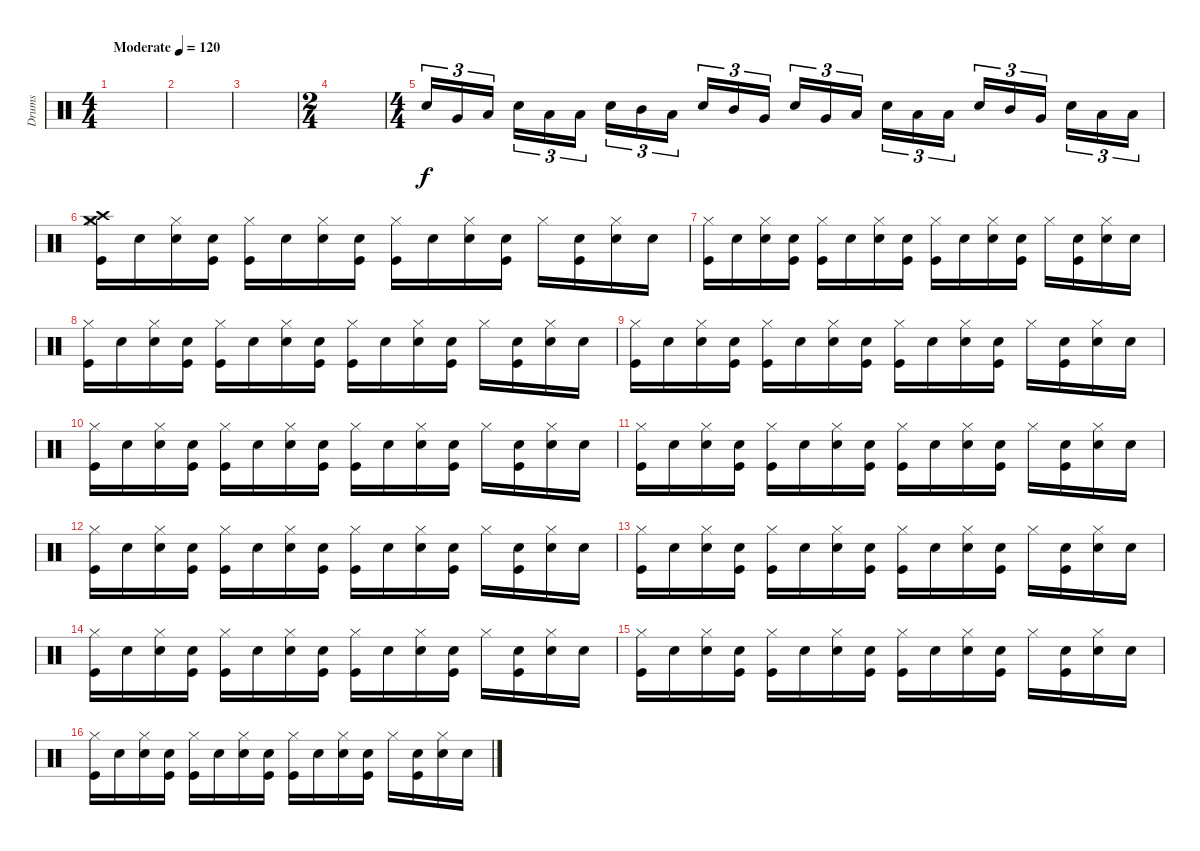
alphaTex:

\track ("Drums" "Drums") {instrument percussion}
\staff {score}
\articulation defaults
\ts (4 4)
\tempo (120 "Moderate")
\clef neutral
\ks c
|
|
|
\ts (2 4)
|
\ts (4 4)
"Electric Snare (hit)".16{tu (3 2)} "Very Low Tom (hit)".16{tu (3 2)} "Low Floor Tom (hit)".16{tu (3 2) beam splitsecondary} "Electric Snare (hit)".16{tu (3 2)} "Low Tom (hit)".16{tu (3 2)} "Low Floor Tom (hit)".16{tu (3 2)} "Electric Snare (hit)".16{tu (3 2)} "Mid Tom (hit)".16{tu (3 2)} "Low Floor Tom (hit)".16{tu (3 2) beam splitsecondary} "Electric Snare (hit)".16{tu (3 2)} "Mid Tom (hit)".16{tu (3 2)} "Very Low Tom (hit)".16{tu (3 2)} "Electric Snare (hit)".16{tu (3 2)} "Very Low Tom (hit)".16{tu (3 2)} "Low Floor Tom (hit)".16{tu (3 2) beam splitsecondary} "Electric Snare (hit)".16{tu (3 2)} "Low Tom (hit)".16{tu (3 2)} "Low Floor Tom (hit)".16{tu (3 2)} "Electric Snare (hit)".16{tu (3 2)} "Mid Tom (hit)".16{tu (3 2)} "Very Low Tom (hit)".16{tu (3 2) beam splitsecondary} "Electric Snare (hit)".16{tu (3 2)} "Low Tom (hit)".16{tu (3 2)} "Low Floor Tom (hit)".16{tu (3 2)} |
("Hi-Hat (closed)" "Crash high (hit)" "Crash medium (hit)" "Kick (hit)").16 "Snare (hit)".16 ("Hi-Hat (closed)" "Electric Snare (hit)").16 ("Snare (hit)" "Kick (hit)").16 ("Hi-Hat (closed)" "Kick (hit)").16 "Snare (hit)".16 ("Hi-Hat (closed)" "Electric Snare (hit)").16 ("Snare (hit)" "Kick (hit)").16 ("Hi-Hat (closed)" "Kick (hit)").16 "Snare (hit)".16 ("Hi-Hat (closed)" "Electric Snare (hit)").16 ("Snare (hit)" "Kick (hit)").16 "Hi-Hat (closed)".16 ("Snare (hit)" "Kick (hit)").16 ("Hi-Hat (closed)" "Electric Snare (hit)").16 "Snare (hit)".16 |
("Hi-Hat (closed)" "Kick (hit)").16 "Snare (hit)".16 ("Hi-Hat (closed)" "Electric Snare (hit)").16 ("Snare (hit)" "Kick (hit)").16 ("Hi-Hat (closed)" "Kick (hit)").16 "Snare (hit)".16 ("Hi-Hat (closed)" "Electric Snare (hit)").16 ("Snare (hit)" "Kick (hit)").16 ("Hi-Hat (closed)" "Kick (hit)").16 "Snare (hit)".16 ("Hi-Hat (closed)" "Electric Snare (hit)").16 ("Snare (hit)" "Kick (hit)").16 "Hi-Hat (closed)".16 ("Snare (hit)" "Kick (hit)").16 ("Hi-Hat (closed)" "Electric Snare (hit)").16 "Snare (hit)".16 |
("Hi-Hat (closed)" "Kick (hit)").16 "Snare (hit)".16 ("Hi-Hat (closed)" "Electric Snare (hit)").16 ("Snare (hit)" "Kick (hit)").16 ("Hi-Hat (closed)" "Kick (hit)").16 "Snare (hit)".16 ("Hi-Hat (closed)" "Electric Snare (hit)").16 ("Snare (hit)" "Kick (hit)").16 ("Hi-Hat (closed)" "Kick (hit)").16 "Snare (hit)".16 ("Hi-Hat (closed)" "Electric Snare (hit)").16 ("Snare (hit)" "Kick (hit)").16 "Hi-Hat (closed)".16 ("Snare (hit)" "Kick (hit)").16 ("Hi-Hat (closed)" "Electric Snare (hit)").16 "Snare (hit)".16 |
("Hi-Hat (closed)" "Kick (hit)").16 "Snare (hit)".16 ("Hi-Hat (closed)" "Electric Snare (hit)").16 ("Snare (hit)" "Kick (hit)").16 ("Hi-Hat (closed)" "Kick (hit)").16 "Snare (hit)".16 ("Hi-Hat (closed)" "Electric Snare (hit)").16 ("Snare (hit)" "Kick (hit)").16 ("Hi-Hat (closed)" "Kick (hit)").16 "Snare (hit)".16 ("Hi-Hat (closed)" "Electric Snare (hit)").16 ("Snare (hit)" "Kick (hit)").16 "Hi-Hat (closed)".16 ("Snare (hit)" "Kick (hit)").16 ("Hi-Hat (closed)" "Electric Snare (hit)").16 "Snare (hit)".16 |
("Hi-Hat (closed)" "Kick (hit)").16 "Snare (hit)".16 ("Hi-Hat (closed)" "Electric Snare (hit)").16 ("Snare (hit)" "Kick (hit)").16 ("Hi-Hat (closed)" "Kick (hit)").16 "Snare (hit)".16 ("Hi-Hat (closed)" "Electric Snare (hit)").16 ("Snare (hit)" "Kick (hit)").16 ("Hi-Hat (closed)" "Kick (hit)").16 "Snare (hit)".16 ("Hi-Hat (closed)" "Electric Snare (hit)").16 ("Snare (hit)" "Kick (hit)").16 "Hi-Hat (closed)".16 ("Snare (hit)" "Kick (hit)").16 ("Hi-Hat (closed)" "Electric Snare (hit)").16 "Snare (hit)".16 |
("Hi-Hat (closed)" "Kick (hit)").16 "Snare (hit)".16 ("Hi-Hat (closed)" "Electric Snare (hit)").16 ("Snare (hit)" "Kick (hit)").16 ("Hi-Hat (closed)" "Kick (hit)").16 "Snare (hit)".16 ("Hi-Hat (closed)" "Electric Snare (hit)").16 ("Snare (hit)" "Kick (hit)").16 ("Hi-Hat (closed)" "Kick (hit)").16 "Snare (hit)".16 ("Hi-Hat (closed)" "Electric Snare (hit)").16 ("Snare (hit)" "Kick (hit)").16 "Hi-Hat (closed)".16 ("Snare (hit)" "Kick (hit)").16 ("Hi-Hat (closed)" "Electric Snare (hit)").16 "Snare (hit)".16 |
("Hi-Hat (closed)" "Kick (hit)").16 "Snare (hit)".16 ("Hi-Hat (closed)" "Electric Snare (hit)").16 ("Snare (hit)" "Kick (hit)").16 ("Hi-Hat (closed)" "Kick (hit)").16 "Snare (hit)".16 ("Hi-Hat (closed)" "Electric Snare (hit)").16 ("Snare (hit)" "Kick (hit)").16 ("Hi-Hat (closed)" "Kick (hit)").16 "Snare (hit)".16 ("Hi-Hat (closed)" "Electric Snare (hit)").16 ("Snare (hit)" "Kick (hit)").16 "Hi-Hat (closed)".16 ("Snare (hit)" "Kick (hit)").16 ("Hi-Hat (closed)" "Electric Snare (hit)").16 "Snare (hit)".16 |
("Hi-Hat (closed)" "Kick (hit)").16 "Snare (hit)".16 ("Hi-Hat (closed)" "Electric Snare (hit)").16 ("Snare (hit)" "Kick (hit)").16 ("Hi-Hat (closed)" "Kick (hit)").16 "Snare (hit)".16 ("Hi-Hat (closed)" "Electric Snare (hit)").16 ("Snare (hit)" "Kick (hit)").16 ("Hi-Hat (closed)" "Kick (hit)").16 "Snare (hit)".16 ("Hi-Hat (closed)" "Electric Snare (hit)").16 ("Snare (hit)" "Kick (hit)").16 "Hi-Hat (closed)".16 ("Snare (hit)" "Kick (hit)").16 ("Hi-Hat (closed)" "Electric Snare (hit)").16 "Snare (hit)".16 |
("Hi-Hat (closed)" "Kick (hit)").16 "Snare (hit)".16 ("Hi-Hat (closed)" "Electric Snare (hit)").16 ("Snare (hit)" "Kick (hit)").16 ("Hi-Hat (closed)" "Kick (hit)").16 "Snare (hit)".16 ("Hi-Hat (closed)" "Electric Snare (hit)").16 ("Snare (hit)" "Kick (hit)").16 ("Hi-Hat (closed)" "Kick (hit)").16 "Snare (hit)".16 ("Hi-Hat (closed)" "Electric Snare (hit)").16 ("Snare (hit)" "Kick (hit)").16 "Hi-Hat (closed)".16 ("Snare (hit)" "Kick (hit)").16 ("Hi-Hat (closed)" "Electric Snare (hit)").16 "Snare (hit)".16 |
("Hi-Hat (closed)" "Kick (hit)").16 "Snare (hit)".16 ("Hi-Hat (closed)" "Electric Snare (hit)").16 ("Snare (hit)" "Kick (hit)").16 ("Hi-Hat (closed)" "Kick (hit)").16 "Snare (hit)".16 ("Hi-Hat (closed)" "Electric Snare (hit)").16 ("Snare (hit)" "Kick (hit)").16 ("Hi-Hat (closed)" "Kick (hit)").16 "Snare (hit)".16 ("Hi-Hat (closed)" "Electric Snare (hit)").16 ("Snare (hit)" "Kick (hit)").16 "Hi-Hat (closed)".16 ("Snare (hit)" "Kick (hit)").16 ("Hi-Hat (closed)" "Electric Snare (hit)").16 "Snare (hit)".16 |
("Hi-Hat (closed)" "Kick (hit)").16 "Snare (hit)".16 ("Hi-Hat (closed)" "Electric Snare (hit)").16 ("Snare (hit)" "Kick (hit)").16 ("Hi-Hat (closed)" "Kick (hit)").16 "Snare (hit)".16 ("Hi-Hat (closed)" "Electric Snare (hit)").16 ("Snare (hit)" "Kick (hit)").16 ("Hi-Hat (closed)" "Kick (hit)").16 "Snare (hit)".16 ("Hi-Hat (closed)" "Electric Snare (hit)").16 ("Snare (hit)" "Kick (hit)").16 "Hi-Hat (closed)".16 ("Snare (hit)" "Kick (hit)").16 ("Hi-Hat (closed)" "Electric Snare (hit)").16 "Snare (hit)".16
